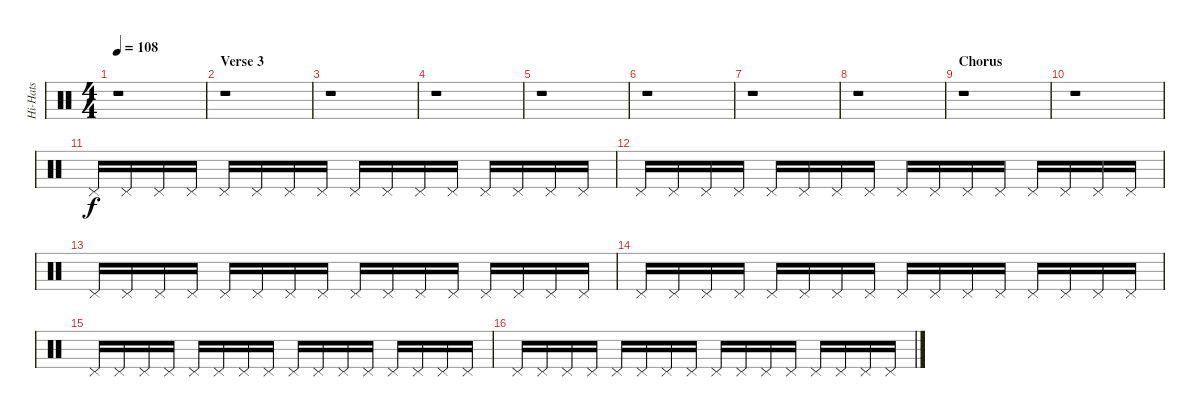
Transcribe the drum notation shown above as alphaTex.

\track ("Hi-Hats" "Hi-Hats") {instrument percussion}
\staff {score}
\articulation defaults
\ts (4 4)
\tempo 108
\clef neutral
\ks c
r.1{dy f} |
\section ("" "Verse 3")
r.1 |
r.1 |
r.1 |
r.1 |
r.1 |
r.1 |
r.1 |
\section ("" "Chorus")
r.1 |
r.1 |
"Pedal Hi-Hat (hit)".16 "Pedal Hi-Hat (hit)".16 "Pedal Hi-Hat (hit)".16 "Pedal Hi-Hat (hit)".16 "Pedal Hi-Hat (hit)".16 "Pedal Hi-Hat (hit)".16 "Pedal Hi-Hat (hit)".16 "Pedal Hi-Hat (hit)".16 "Pedal Hi-Hat (hit)".16 "Pedal Hi-Hat (hit)".16 "Pedal Hi-Hat (hit)".16 "Pedal Hi-Hat (hit)".16 "Pedal Hi-Hat (hit)".16 "Pedal Hi-Hat (hit)".16 "Pedal Hi-Hat (hit)".16 "Pedal Hi-Hat (hit)".16 |
"Pedal Hi-Hat (hit)".16 "Pedal Hi-Hat (hit)".16 "Pedal Hi-Hat (hit)".16 "Pedal Hi-Hat (hit)".16 "Pedal Hi-Hat (hit)".16 "Pedal Hi-Hat (hit)".16 "Pedal Hi-Hat (hit)".16 "Pedal Hi-Hat (hit)".16 "Pedal Hi-Hat (hit)".16 "Pedal Hi-Hat (hit)".16 "Pedal Hi-Hat (hit)".16 "Pedal Hi-Hat (hit)".16 "Pedal Hi-Hat (hit)".16 "Pedal Hi-Hat (hit)".16 "Pedal Hi-Hat (hit)".16 "Pedal Hi-Hat (hit)".16 |
"Pedal Hi-Hat (hit)".16 "Pedal Hi-Hat (hit)".16 "Pedal Hi-Hat (hit)".16 "Pedal Hi-Hat (hit)".16 "Pedal Hi-Hat (hit)".16 "Pedal Hi-Hat (hit)".16 "Pedal Hi-Hat (hit)".16 "Pedal Hi-Hat (hit)".16 "Pedal Hi-Hat (hit)".16 "Pedal Hi-Hat (hit)".16 "Pedal Hi-Hat (hit)".16 "Pedal Hi-Hat (hit)".16 "Pedal Hi-Hat (hit)".16 "Pedal Hi-Hat (hit)".16 "Pedal Hi-Hat (hit)".16 "Pedal Hi-Hat (hit)".16 |
"Pedal Hi-Hat (hit)".16 "Pedal Hi-Hat (hit)".16 "Pedal Hi-Hat (hit)".16 "Pedal Hi-Hat (hit)".16 "Pedal Hi-Hat (hit)".16 "Pedal Hi-Hat (hit)".16 "Pedal Hi-Hat (hit)".16 "Pedal Hi-Hat (hit)".16 "Pedal Hi-Hat (hit)".16 "Pedal Hi-Hat (hit)".16 "Pedal Hi-Hat (hit)".16 "Pedal Hi-Hat (hit)".16 "Pedal Hi-Hat (hit)".16 "Pedal Hi-Hat (hit)".16 "Pedal Hi-Hat (hit)".16 "Pedal Hi-Hat (hit)".16 |
"Pedal Hi-Hat (hit)".16 "Pedal Hi-Hat (hit)".16 "Pedal Hi-Hat (hit)".16 "Pedal Hi-Hat (hit)".16 "Pedal Hi-Hat (hit)".16 "Pedal Hi-Hat (hit)".16 "Pedal Hi-Hat (hit)".16 "Pedal Hi-Hat (hit)".16 "Pedal Hi-Hat (hit)".16 "Pedal Hi-Hat (hit)".16 "Pedal Hi-Hat (hit)".16 "Pedal Hi-Hat (hit)".16 "Pedal Hi-Hat (hit)".16 "Pedal Hi-Hat (hit)".16 "Pedal Hi-Hat (hit)".16 "Pedal Hi-Hat (hit)".16 |
"Pedal Hi-Hat (hit)".16 "Pedal Hi-Hat (hit)".16 "Pedal Hi-Hat (hit)".16 "Pedal Hi-Hat (hit)".16 "Pedal Hi-Hat (hit)".16 "Pedal Hi-Hat (hit)".16 "Pedal Hi-Hat (hit)".16 "Pedal Hi-Hat (hit)".16 "Pedal Hi-Hat (hit)".16 "Pedal Hi-Hat (hit)".16 "Pedal Hi-Hat (hit)".16 "Pedal Hi-Hat (hit)".16 "Pedal Hi-Hat (hit)".16 "Pedal Hi-Hat (hit)".16 "Pedal Hi-Hat (hit)".16 "Pedal Hi-Hat (hit)".16
